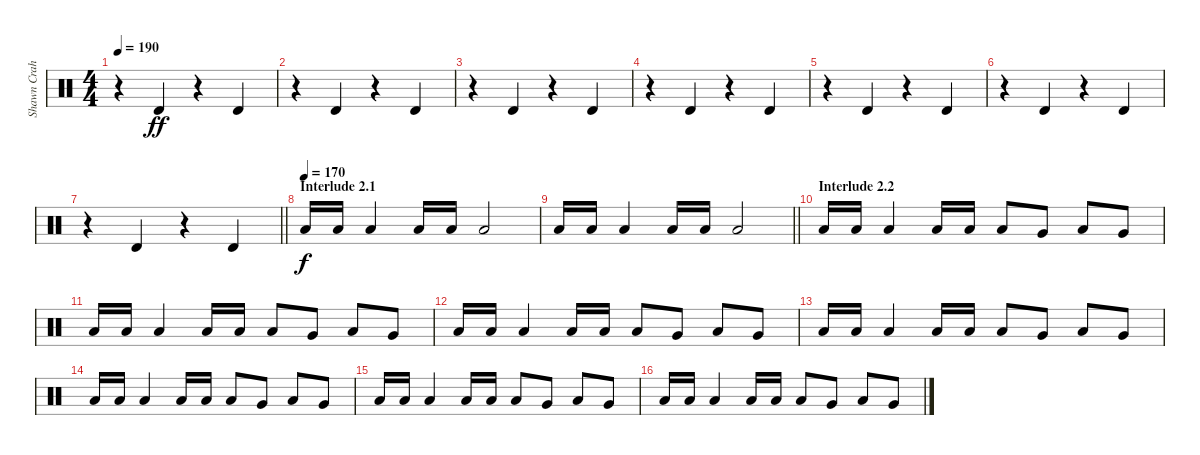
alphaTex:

\track ("Shawn Crahan" "Shawn Crah") {instrument percussion}
\staff {score}
\articulation defaults
\ts (4 4)
\tempo 190
\clef neutral
\ks c
r.4{dy ff} "Timbale high (hit)".4 r.4 "Timbale high (hit)".4 |
r.4 "Timbale high (hit)".4 r.4 "Timbale high (hit)".4 |
r.4 "Timbale high (hit)".4 r.4 "Timbale high (hit)".4 |
r.4 "Timbale high (hit)".4 r.4 "Timbale high (hit)".4 |
r.4 "Timbale high (hit)".4 r.4 "Timbale high (hit)".4 |
r.4 "Timbale high (hit)".4 r.4 "Timbale high (hit)".4 |
\barLineRight lightlight
r.4 "Timbale high (hit)".4 r.4 "Timbale high (hit)".4 |
\section ("" "Interlude 2.1")
\tempo (170)
"Low Floor Tom (hit)".16{dy f} "Low Floor Tom (hit)".16 "Low Floor Tom (hit)".4 "Low Floor Tom (hit)".16 "Low Floor Tom (hit)".16 "Low Floor Tom (hit)".2 |
\barLineRight lightlight "Low Floor Tom (hit)".16 "Low Floor Tom (hit)".16 "Low Floor Tom (hit)".4 "Low Floor Tom (hit)".16 "Low Floor Tom (hit)".16 "Low Floor Tom (hit)".2
|
\section ("" "Interlude 2.2")
"Low Floor Tom (hit)".16 "Low Floor Tom (hit)".16 "Low Floor Tom (hit)".4 "Low Floor Tom (hit)".16 "Low Floor Tom (hit)".16 "Low Floor Tom (hit)".8 "Very Low Tom (hit)".8 "Low Floor Tom (hit)".8 "Very Low Tom (hit)".8 |
"Low Floor Tom (hit)".16 "Low Floor Tom (hit)".16 "Low Floor Tom (hit)".4 "Low Floor Tom (hit)".16 "Low Floor Tom (hit)".16 "Low Floor Tom (hit)".8 "Very Low Tom (hit)".8 "Low Floor Tom (hit)".8 "Very Low Tom (hit)".8 |
"Low Floor Tom (hit)".16 "Low Floor Tom (hit)".16 "Low Floor Tom (hit)".4 "Low Floor Tom (hit)".16 "Low Floor Tom (hit)".16 "Low Floor Tom (hit)".8 "Very Low Tom (hit)".8 "Low Floor Tom (hit)".8 "Very Low Tom (hit)".8 |
"Low Floor Tom (hit)".16 "Low Floor Tom (hit)".16 "Low Floor Tom (hit)".4 "Low Floor Tom (hit)".16 "Low Floor Tom (hit)".16 "Low Floor Tom (hit)".8 "Very Low Tom (hit)".8 "Low Floor Tom (hit)".8 "Very Low Tom (hit)".8 |
"Low Floor Tom (hit)".16 "Low Floor Tom (hit)".16 "Low Floor Tom (hit)".4 "Low Floor Tom (hit)".16 "Low Floor Tom (hit)".16 "Low Floor Tom (hit)".8 "Very Low Tom (hit)".8 "Low Floor Tom (hit)".8 "Very Low Tom (hit)".8 |
"Low Floor Tom (hit)".16 "Low Floor Tom (hit)".16 "Low Floor Tom (hit)".4 "Low Floor Tom (hit)".16 "Low Floor Tom (hit)".16 "Low Floor Tom (hit)".8 "Very Low Tom (hit)".8 "Low Floor Tom (hit)".8 "Very Low Tom (hit)".8 |
"Low Floor Tom (hit)".16 "Low Floor Tom (hit)".16 "Low Floor Tom (hit)".4 "Low Floor Tom (hit)".16 "Low Floor Tom (hit)".16 "Low Floor Tom (hit)".8 "Very Low Tom (hit)".8 "Low Floor Tom (hit)".8 "Very Low Tom (hit)".8
